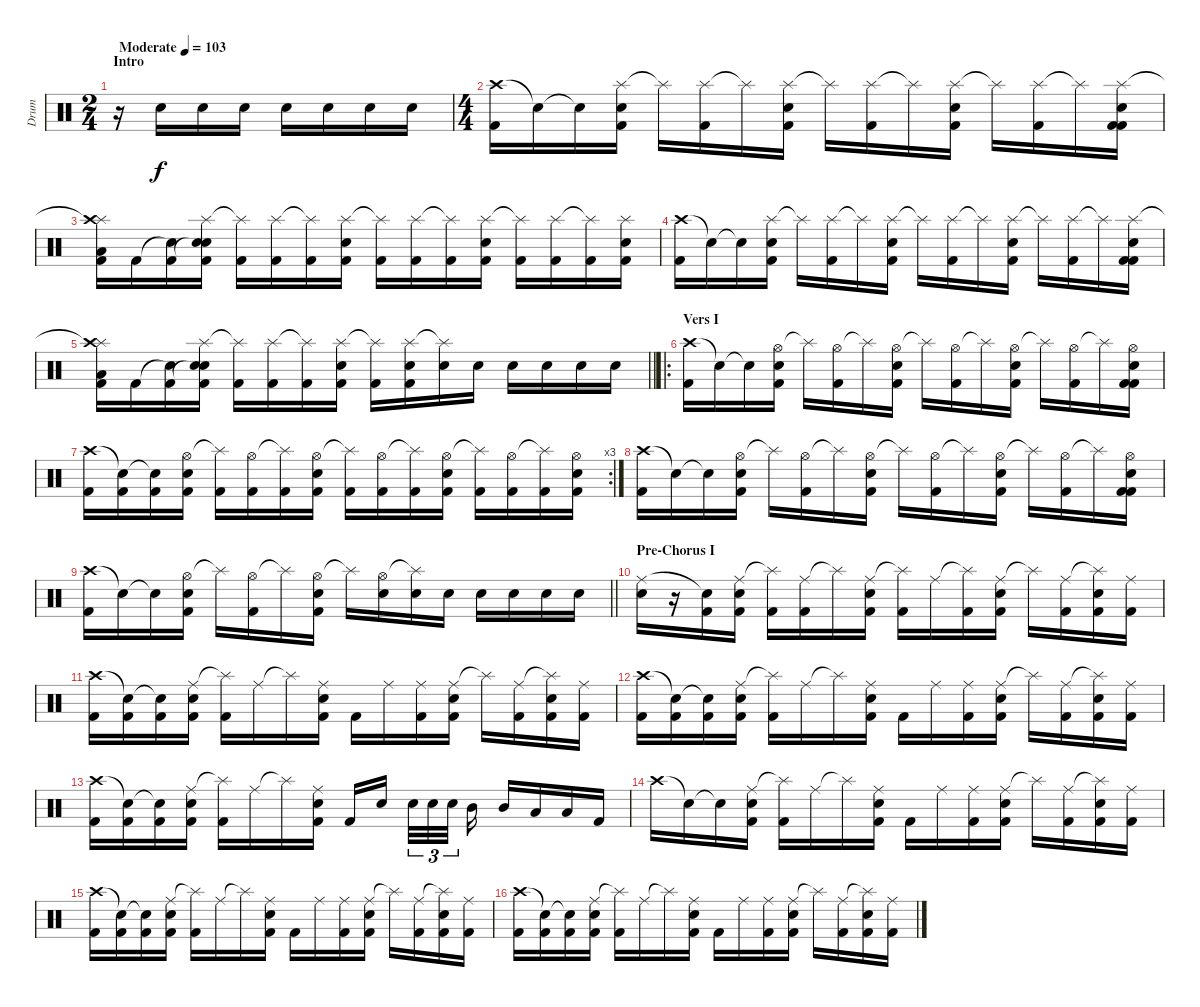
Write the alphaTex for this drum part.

\track ("Drum" "Drum") {instrument percussion}
\staff {score}
\articulation defaults
\ts (2 4)
\section ("" "Intro")
\tempo (103 "Moderate")
\clef neutral
\ks c
r.16{dy f} "Electric Snare (hit)".16 "Electric Snare (hit)".16 "Electric Snare (hit)".16 "Electric Snare (hit)".16 "Electric Snare (hit)".16 "Electric Snare (hit)".16 "Electric Snare (hit)".16 |
\ts (4 4)
("Crash high (hit)" "Kick (hit) 2").16 "Snare (hit)"{t}.16 "Snare (hit)"{t}.16 ("Splash (hit)" "Electric Snare (hit)" "Kick (hit) 2").16 "Splash (hit)"{t}.16 ("Splash (hit)" "Kick (hit) 2").16 "Splash (hit)"{t}.16 ("Splash (hit)" "Electric Snare (hit)" "Kick (hit) 2").16 "Splash (hit)"{t}.16 ("Splash (hit)" "Kick (hit) 2").16 "Splash (hit)"{t}.16 ("Splash (hit)" "Electric Snare (hit)" "Kick (hit) 2").16 "Splash (hit)"{t}.16 ("Splash (hit)" "Kick (hit) 2").16 "Splash (hit)"{t}.16 ("Splash (hit)" "Electric Snare (hit)" "Kick (hit) 2" "Kick (hit) 2").16 |
("Splash (hit)"{t} "Crash high (hit)" "Low Tom (hit)" "Kick (hit) 2").16 "Kick (hit) 2".16 ("Snare (hit)"{t} "Kick (hit) 2").16 ("Splash (hit)" "Snare (hit)"{t} "Electric Snare (hit)" "Kick (hit) 2").16 ("Splash (hit)"{t} "Kick (hit) 2").16 ("Splash (hit)" "Kick (hit) 2").16 ("Splash (hit)"{t} "Kick (hit) 2").16 ("Splash (hit)" "Electric Snare (hit)" "Kick (hit) 2").16 ("Splash (hit)"{t} "Kick (hit) 2").16 ("Splash (hit)" "Kick (hit) 2").16 ("Splash (hit)"{t} "Kick (hit) 2").16 ("Splash (hit)" "Electric Snare (hit)" "Kick (hit) 2").16 ("Splash (hit)"{t} "Kick (hit) 2").16 ("Splash (hit)" "Kick (hit) 2").16 ("Splash (hit)"{t} "Kick (hit) 2").16 ("Splash (hit)" "Electric Snare (hit)" "Kick (hit) 2").16 |
("Crash high (hit)" "Kick (hit) 2").16 "Snare (hit)"{t}.16 "Snare (hit)"{t}.16 ("Splash (hit)" "Electric Snare (hit)" "Kick (hit) 2").16 "Splash (hit)"{t}.16 ("Splash (hit)" "Kick (hit) 2").16 "Splash (hit)"{t}.16 ("Splash (hit)" "Electric Snare (hit)" "Kick (hit) 2").16 "Splash (hit)"{t}.16 ("Splash (hit)" "Kick (hit) 2").16 "Splash (hit)"{t}.16 ("Splash (hit)" "Electric Snare (hit)" "Kick (hit) 2").16 "Splash (hit)"{t}.16 ("Splash (hit)" "Kick (hit) 2").16 "Splash (hit)"{t}.16 ("Splash (hit)" "Electric Snare (hit)" "Kick (hit) 2" "Kick (hit) 2").16 |
\barLineRight lightlight
("Splash (hit)"{t} "Crash high (hit)" "Low Tom (hit)" "Kick (hit) 2").16 "Kick (hit) 2".16 ("Snare (hit)"{t} "Kick (hit) 2").16 ("Splash (hit)" "Snare (hit)"{t} "Electric Snare (hit)" "Kick (hit) 2").16 ("Splash (hit)"{t} "Kick (hit) 2").16 ("Splash (hit)" "Kick (hit) 2").16 ("Splash (hit)"{t} "Kick (hit) 2").16 ("Splash (hit)" "Electric Snare (hit)" "Kick (hit) 2").16 ("Splash (hit)"{t} "Kick (hit) 2").16 ("Splash (hit)" "Electric Snare (hit)" "Kick (hit) 2").16 ("Splash (hit)"{t} "Electric Snare (hit)").16 "Electric Snare (hit)".16 "Electric Snare (hit)".16 "Electric Snare (hit)".16 "Electric Snare (hit)".16 "Electric Snare (hit)".16 |
\ro
\section ("" "Vers I")
("Crash high (hit)" "Kick (hit) 2").16 "Snare (hit)"{t}.16 "Snare (hit)"{t}.16 ("Hi-Hat (open)" "Electric Snare (hit)" "Kick (hit) 2").16 "Splash (hit)"{t}.16 ("Hi-Hat (open)" "Kick (hit) 2").16 "Splash (hit)"{t}.16 ("Hi-Hat (open)" "Electric Snare (hit)" "Kick (hit) 2").16 "Splash (hit)"{t}.16 ("Hi-Hat (open)" "Kick (hit) 2").16 "Splash (hit)"{t}.16 ("Hi-Hat (open)" "Electric Snare (hit)" "Kick (hit) 2").16 "Splash (hit)"{t}.16 ("Hi-Hat (open)" "Kick (hit) 2").16 "Splash (hit)"{t}.16 ("Hi-Hat (open)" "Electric Snare (hit)" "Kick (hit) 2" "Kick (hit) 2").16 |
\rc 3
("Crash high (hit)" "Kick (hit) 2").16 ("Snare (hit)"{t} "Kick (hit) 2").16 ("Snare (hit)"{t} "Kick (hit) 2").16 ("Hi-Hat (open)" "Electric Snare (hit)" "Kick (hit) 2").16 ("Splash (hit)"{t} "Kick (hit) 2").16 ("Hi-Hat (open)" "Kick (hit) 2").16 ("Splash (hit)"{t} "Kick (hit) 2").16 ("Hi-Hat (open)" "Electric Snare (hit)" "Kick (hit) 2").16 ("Splash (hit)"{t} "Kick (hit) 2").16 ("Hi-Hat (open)" "Kick (hit) 2").16 ("Splash (hit)"{t} "Kick (hit) 2").16 ("Hi-Hat (open)" "Electric Snare (hit)" "Kick (hit) 2").16 ("Splash (hit)"{t} "Kick (hit) 2").16 ("Hi-Hat (open)" "Kick (hit) 2").16 ("Splash (hit)"{t} "Kick (hit) 2").16 ("Hi-Hat (open)" "Electric Snare (hit)" "Kick (hit) 2").16 |
("Crash high (hit)" "Kick (hit) 2").16 "Snare (hit)"{t}.16 "Snare (hit)"{t}.16 ("Hi-Hat (open)" "Electric Snare (hit)" "Kick (hit) 2").16 "Splash (hit)"{t}.16 ("Hi-Hat (open)" "Kick (hit) 2").16 "Splash (hit)"{t}.16 ("Hi-Hat (open)" "Electric Snare (hit)" "Kick (hit) 2").16 "Splash (hit)"{t}.16 ("Hi-Hat (open)" "Kick (hit) 2").16 "Splash (hit)"{t}.16 ("Hi-Hat (open)" "Electric Snare (hit)" "Kick (hit) 2").16 "Splash (hit)"{t}.16 ("Hi-Hat (open)" "Kick (hit) 2").16 "Splash (hit)"{t}.16 ("Hi-Hat (open)" "Electric Snare (hit)" "Kick (hit) 2" "Kick (hit) 2").16 |
\barLineRight lightlight
("Crash high (hit)" "Kick (hit) 2").16 "Snare (hit)"{t}.16 "Snare (hit)"{t}.16 ("Hi-Hat (open)" "Electric Snare (hit)" "Kick (hit) 2").16 "Splash (hit)"{t}.16 ("Hi-Hat (open)" "Kick (hit) 2").16 "Splash (hit)"{t}.16 ("Hi-Hat (open)" "Electric Snare (hit)" "Kick (hit) 2").16 "Splash (hit)"{t}.16 ("Hi-Hat (open)" "Electric Snare (hit)").16 ("Splash (hit)"{t} "Electric Snare (hit)").16 "Electric Snare (hit)".16 "Electric Snare (hit)".16 "Electric Snare (hit)".16 "Electric Snare (hit)".16 "Electric Snare (hit)".16 |
\section ("" "Pre-Chorus I")
("Ride (middle)" "Electric Snare (hit)").16 r.16 ("Snare (hit)"{t} "Kick (hit) 2").16 ("Ride (middle)" "Electric Snare (hit)" "Kick (hit) 2").16 ("Splash (hit)"{t} "Kick (hit) 2").16 ("Ride (middle)" "Kick (hit) 2").16 "Splash (hit)"{t}.16 ("Ride (middle)" "Electric Snare (hit)" "Kick (hit) 2").16 ("Splash (hit)"{t} "Kick (hit) 2").16 "Ride (middle)".16 ("Splash (hit)"{t} "Kick (hit) 2").16 ("Ride (middle)" "Electric Snare (hit)" "Kick (hit) 2").16 "Splash (hit)"{t}.16 ("Ride (middle)" "Kick (hit) 2").16 ("Splash (hit)"{t} "Electric Snare (hit)" "Kick (hit) 2").16 ("Ride (middle)" "Kick (hit) 2").16 |
("Crash high (hit)" "Kick (hit) 2").16 ("Snare (hit)"{t} "Kick (hit) 2").16 ("Snare (hit)"{t} "Kick (hit) 2").16 ("Ride (middle)" "Electric Snare (hit)" "Kick (hit) 2").16 ("Splash (hit)"{t} "Kick (hit) 2").16 "Ride (middle)".16 "Splash (hit)"{t}.16 ("Ride (middle)" "Electric Snare (hit)" "Kick (hit) 2").16 "Kick (hit) 2".16 "Ride (middle)".16 ("Ride (middle)" "Kick (hit) 2").16 ("Ride (middle)" "Electric Snare (hit)" "Kick (hit) 2").16 "Splash (hit)"{t}.16 ("Ride (middle)" "Kick (hit) 2").16 ("Splash (hit)"{t} "Electric Snare (hit)" "Kick (hit) 2").16 ("Ride (middle)" "Kick (hit) 2").16 |
("Crash high (hit)" "Kick (hit) 2").16 ("Snare (hit)"{t} "Kick (hit) 2").16 ("Snare (hit)"{t} "Kick (hit) 2").16 ("Ride (middle)" "Electric Snare (hit)" "Kick (hit) 2").16 ("Splash (hit)"{t} "Kick (hit) 2").16 "Ride (middle)".16 "Splash (hit)"{t}.16 ("Ride (middle)" "Electric Snare (hit)" "Kick (hit) 2").16 "Kick (hit) 2".16 "Ride (middle)".16 ("Ride (middle)" "Kick (hit) 2").16 ("Ride (middle)" "Electric Snare (hit)" "Kick (hit) 2").16 "Splash (hit)"{t}.16 ("Ride (middle)" "Kick (hit) 2").16 ("Splash (hit)"{t} "Electric Snare (hit)" "Kick (hit) 2").16 ("Ride (middle)" "Kick (hit) 2").16 |
("Crash high (hit)" "Kick (hit) 2").16 ("Snare (hit)"{t} "Kick (hit) 2").16 ("Snare (hit)"{t} "Kick (hit) 2").16 ("Ride (middle)" "Electric Snare (hit)" "Kick (hit) 2").16 ("Splash (hit)"{t} "Kick (hit) 2").16 "Ride (middle)".16 "Splash (hit)"{t}.16 ("Ride (middle)" "Electric Snare (hit)" "Kick (hit) 2").16 "Kick (hit) 2".16 "Electric Snare (hit)".16{beam splitsecondary} "Electric Snare (hit)".32{tu (3 2)} "Electric Snare (hit)".32{tu (3 2)} "Electric Snare (hit)".32{tu (3 2) beam splitsecondary} "Mid Tom (hit)".16 "Mid Tom (hit)".16 "Low Tom (hit)".16 "Low Tom (hit)".16 "Kick (hit) 2".16 |
"Crash high (hit)".16 "Snare (hit)"{t}.16 "Snare (hit)"{t}.16 ("Ride (middle)" "Electric Snare (hit)" "Kick (hit) 2").16 ("Splash (hit)"{t} "Kick (hit) 2").16 "Ride (middle)".16 "Splash (hit)"{t}.16 ("Ride (middle)" "Electric Snare (hit)" "Kick (hit) 2").16 "Kick (hit) 2".16 "Ride (middle)".16 ("Ride (middle)" "Kick (hit) 2").16 ("Ride (middle)" "Electric Snare (hit)" "Kick (hit) 2").16 "Splash (hit)"{t}.16 ("Ride (middle)" "Kick (hit) 2").16 ("Splash (hit)"{t} "Electric Snare (hit)" "Kick (hit) 2").16 ("Ride (middle)" "Kick (hit) 2").16 |
("Crash high (hit)" "Kick (hit) 2").16 ("Snare (hit)"{t} "Kick (hit) 2").16 ("Snare (hit)"{t} "Kick (hit) 2").16 ("Ride (middle)" "Electric Snare (hit)" "Kick (hit) 2").16 ("Splash (hit)"{t} "Kick (hit) 2").16 "Ride (middle)".16 "Splash (hit)"{t}.16 ("Ride (middle)" "Electric Snare (hit)" "Kick (hit) 2").16 "Kick (hit) 2".16 "Ride (middle)".16 ("Ride (middle)" "Kick (hit) 2").16 ("Ride (middle)" "Electric Snare (hit)" "Kick (hit) 2").16 "Splash (hit)"{t}.16 ("Ride (middle)" "Kick (hit) 2").16 ("Splash (hit)"{t} "Electric Snare (hit)" "Kick (hit) 2").16 ("Ride (middle)" "Kick (hit) 2").16 |
("Crash high (hit)" "Kick (hit) 2").16 ("Snare (hit)"{t} "Kick (hit) 2").16 ("Snare (hit)"{t} "Kick (hit) 2").16 ("Ride (middle)" "Electric Snare (hit)" "Kick (hit) 2").16 ("Splash (hit)"{t} "Kick (hit) 2").16 "Ride (middle)".16 "Splash (hit)"{t}.16 ("Ride (middle)" "Electric Snare (hit)" "Kick (hit) 2").16 "Kick (hit) 2".16 "Ride (middle)".16 ("Ride (middle)" "Kick (hit) 2").16 ("Ride (middle)" "Electric Snare (hit)" "Kick (hit) 2").16 "Splash (hit)"{t}.16 ("Ride (middle)" "Kick (hit) 2").16 ("Splash (hit)"{t} "Electric Snare (hit)" "Kick (hit) 2").16 ("Ride (middle)" "Kick (hit) 2").16
